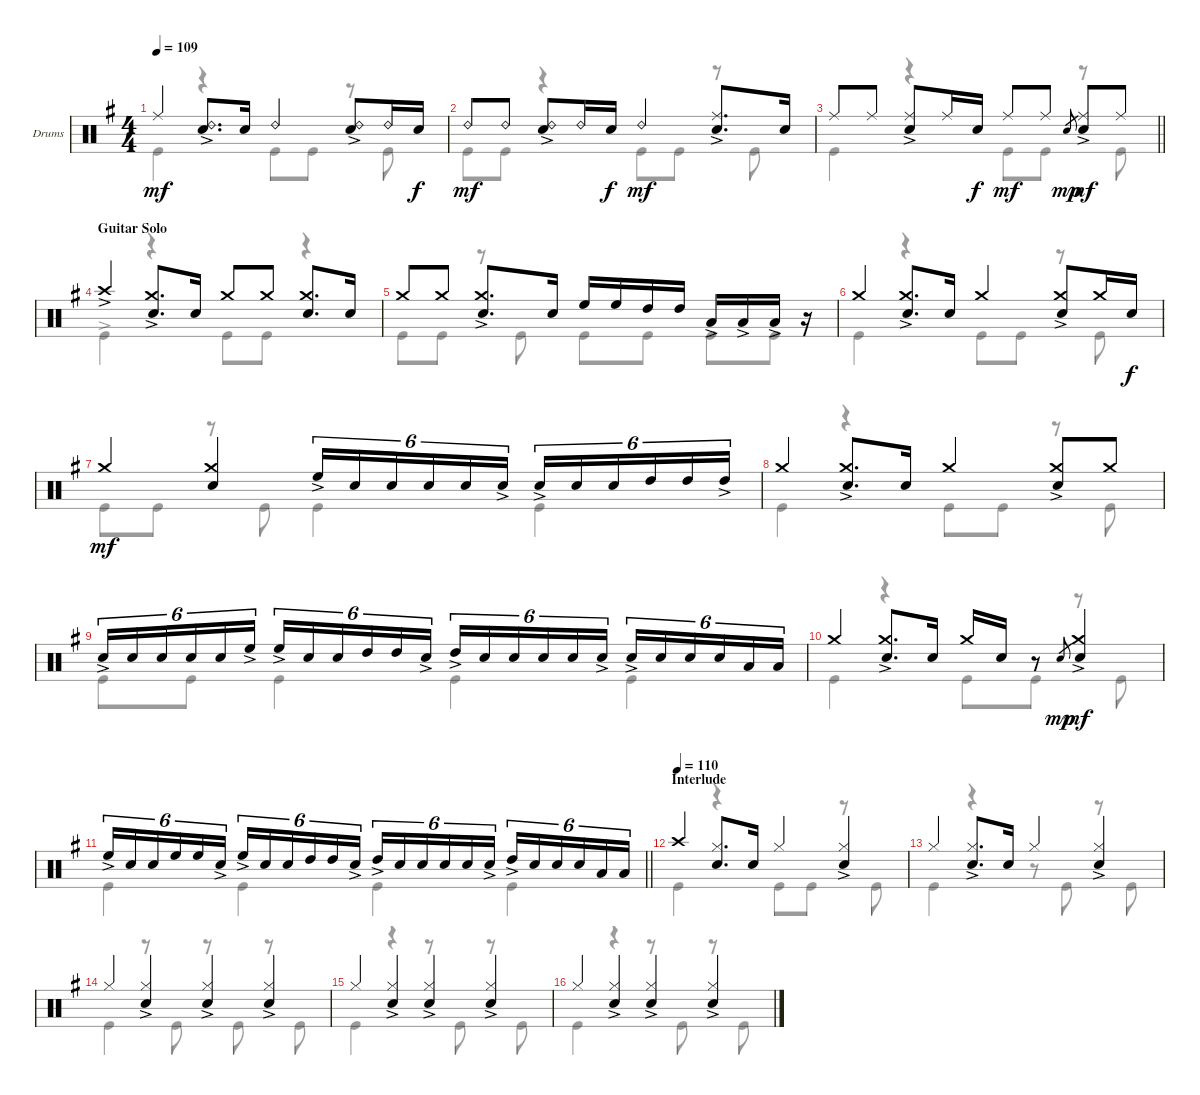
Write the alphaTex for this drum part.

\bracketExtendMode groupsimilarinstruments
\firstSystemTrackNameOrientation horizontal
\otherSystemsTrackNameOrientation horizontal
\track ("Drumkit" "Drums") {instrument percussion}
\staff {score}
\articulation defaults
\voice
\ts (4 4)
\tempo 109
\clef neutral
\ks g "Ride (middle)".4{dy mf}
("Ride (bell) 2" "Snare (hit) 2"{ac}).8{d} "Snare (hit) 2".16 "Ride (bell) 2".4 ("Ride (bell) 2" "Snare (hit) 2"{ac}).8 "Ride (bell) 2".16 "Snare (hit) 2".16{dy f} |
"Ride (bell) 2".8{dy mf} "Ride (bell) 2".8 ("Ride (bell) 2" "Snare (hit) 2"{ac}).8 "Ride (bell) 2".16 "Snare (hit) 2".16{dy f} "Ride (bell) 2".4{dy mf} ("Ride (middle)" "Snare (hit) 2"{ac}).8{d} "Snare (hit) 2".16 |
\barLineRight lightlight "Ride (middle)".8 "Ride (middle)".8
("Ride (middle)" "Snare (hit) 2"{ac}).8 "Ride (middle)".16 "Snare (hit) 2".16{dy f} "Ride (middle)".8{dy mf} "Ride (middle)".8 "Snare (hit) 2".8{gr dy mp} ("Ride (middle)" "Snare (hit) 2"{ac}).8{dy mf} "Ride (middle)".8 |
\section ("" "Guitar Solo")
"Crash high (hit)"{ac}.4 ("Crash medium (hit)" "Snare (hit) 2"{ac}).8{d} "Snare (hit) 2".16 "Crash medium (hit)".8 "Crash medium (hit)".8 ("Crash medium (hit)" "Snare (hit) 2").8{d} "Snare (hit) 2".16 |
"Crash medium (hit)".8 "Crash medium (hit)".8 ("Crash medium (hit)" "Snare (hit) 2"{ac}).8{d} "Snare (hit) 2".16 "High Floor Tom (hit)".16 "High Floor Tom (hit)".16 "High Tom (hit)".16 "High Tom (hit)".16 "Low Tom (hit)"{ac}.16 "Low Tom (hit)"{ac}.16 "Low Tom (hit)"{ac}.16 r.16 |
"Crash medium (hit)".4 ("Crash medium (hit)"{ac} "Snare (hit) 2").8{d} "Snare (hit) 2".16 "Crash medium (hit)".4 ("Crash medium (hit)"{ac} "Snare (hit) 2").8 "Crash medium (hit)".16 "Snare (hit) 2".16{dy f} |
"Crash medium (hit)".4{dy mf} ("Crash medium (hit)" "Snare (hit) 2").4 "High Floor Tom (hit)"{ac}.16{tu (6 4)} "Snare (hit) 2".16{tu (6 4)} "Snare (hit) 2".16{tu (6 4)} "Snare (hit) 2".16{tu (6 4)} "Snare (hit) 2".16{tu (6 4)} "Snare (hit) 2"{ac}.16{tu (6 4)} "Snare (hit) 2"{ac}.16{tu (6 4)} "Snare (hit) 2".16{tu (6 4)} "Snare (hit) 2".16{tu (6 4)} "High Tom (hit)".16{tu (6 4)} "High Tom (hit)".16{tu (6 4)} "High Tom (hit)"{ac}.16{tu (6 4)} |
"Crash medium (hit)".4 ("Crash medium (hit)"{ac} "Snare (hit) 2").8{d} "Snare (hit) 2".16 "Crash medium (hit)".4 ("Crash medium (hit)"{ac} "Snare (hit) 2").8 "Crash medium (hit)".8 |
"Snare (hit) 2"{ac}.16{tu (6 4)} "Snare (hit) 2".16{tu (6 4)} "Snare (hit) 2".16{tu (6 4)} "Snare (hit) 2".16{tu (6 4)} "Snare (hit) 2".16{tu (6 4)} "High Floor Tom (hit)"{ac}.16{tu (6 4)} "High Floor Tom (hit)"{ac}.16{tu (6 4)} "Snare (hit) 2".16{tu (6 4)} "Snare (hit) 2".16{tu (6 4)} "High Tom (hit)".16{tu (6 4)} "High Tom (hit)".16{tu (6 4)} "Snare (hit) 2"{ac}.16{tu (6 4)} "High Tom (hit)"{ac}.16{tu (6 4)} "Snare (hit) 2".16{tu (6 4)} "Snare (hit) 2".16{tu (6 4)} "Snare (hit) 2".16{tu (6 4)} "Snare (hit) 2".16{tu (6 4)} "Snare (hit) 2"{ac}.16{tu (6 4)} "Snare (hit) 2"{ac}.16{tu (6 4)} "Snare (hit) 2".16{tu (6 4)} "Snare (hit) 2".16{tu (6 4)} "Snare (hit) 2".16{tu (6 4)} "Low Tom (hit)".16{tu (6 4)} "Low Tom (hit)".16{tu (6 4)} |
"Crash medium (hit)".4 ("Crash medium (hit)"{ac} "Snare (hit) 2").8{d} "Snare (hit) 2".16 "Crash medium (hit)".16 "Snare (hit) 2".16 r.8 "Snare (hit) 2".8{gr dy mp} ("Crash medium (hit)" "Snare (hit) 2"{ac}).4{dy mf} |
\barLineRight lightlight "High Floor Tom (hit)"{ac}.16{tu (6 4)} "Snare (hit) 2".16{tu (6 4)} "Snare (hit) 2".16{tu (6 4)} "High Floor Tom (hit)".16{tu (6 4)} "High Floor Tom (hit)".16{tu (6 4)} "Snare (hit) 2"{ac}.16{tu (6 4)} "High Floor Tom (hit)"{ac}.16{tu (6 4)} "Snare (hit) 2".16{tu (6 4)} "Snare (hit) 2".16{tu (6 4)} "High Tom (hit)".16{tu (6 4)} "High Tom (hit)".16{tu (6 4)} "Snare (hit) 2"{ac}.16{tu (6 4)} "High Tom (hit)"{ac}.16{tu (6 4)} "Snare (hit) 2".16{tu (6 4)} "Snare (hit) 2".16{tu (6 4)} "Snare (hit) 2".16{tu (6 4)} "Snare (hit) 2".16{tu (6 4)} "Snare (hit) 2"{ac}.16{tu (6 4)} "High Tom (hit)"{ac}.16{tu (6 4)} "Snare (hit) 2".16{tu (6 4)} "Snare (hit) 2".16{tu (6 4)} "Snare (hit) 2".16{tu (6 4)} "Low Tom (hit)".16{tu (6 4)} "Low Tom (hit)".16{tu (6 4)}
|
\section ("" "Interlude")
\tempo (110)
"Crash high (hit)".4 ("Hi-Hat (closed)" "Snare (hit) 2").8{d} "Snare (hit) 2".16 "Hi-Hat (closed)".4 ("Hi-Hat (closed)"{ac} "Snare (hit) 2").4 |
"Hi-Hat (closed)".4 ("Hi-Hat (closed)"{ac} "Snare (hit) 2").8{d} "Snare (hit) 2".16 "Hi-Hat (closed)".4 ("Hi-Hat (closed)"{ac} "Snare (hit) 2").4 |
"Hi-Hat (closed)".4 ("Hi-Hat (closed)"{ac} "Snare (hit) 2").4 ("Hi-Hat (closed)"{ac} "Snare (hit) 2").4 ("Hi-Hat (closed)"{ac} "Snare (hit) 2").4 |
"Hi-Hat (closed)".4 ("Hi-Hat (closed)"{ac} "Snare (hit) 2").4 ("Hi-Hat (closed)"{ac} "Snare (hit) 2").4 ("Hi-Hat (closed)"{ac} "Snare (hit) 2").4 |
"Hi-Hat (closed)".4 ("Hi-Hat (closed)"{ac} "Snare (hit) 2").4 ("Hi-Hat (closed)"{ac} "Snare (hit) 2").4 ("Hi-Hat (closed)"{ac} "Snare (hit) 2").4
\voice
\clef neutral
\ottava regular
\simile none
\ks g "Kick (hit)".4{dy mf}
r.4 "Kick (hit)".8 "Kick (hit)".8 r.8 "Kick (hit)".8 |
"Kick (hit)".8 "Kick (hit)".8 r.4 "Kick (hit)".8 "Kick (hit)".8 r.8 "Kick (hit)".8 |
\barLineRight lightlight "Kick (hit)".4
r.4 "Kick (hit)".8 "Kick (hit)".8 r.8 "Kick (hit)".8 |
"Kick (hit)"{ac}.4 r.4 "Kick (hit)".8 "Kick (hit)".8 r.4 |
"Kick (hit)".8 "Kick (hit)".8 r.8 "Kick (hit)".8 "Kick (hit)".8 "Kick (hit)".8 "Kick (hit)".8 "Kick (hit)".8 |
"Kick (hit)".4 r.4 "Kick (hit)".8 "Kick (hit)".8 r.8 "Kick (hit)".8 |
"Kick (hit)".8 "Kick (hit)".8 r.8 "Kick (hit)".8 "Kick (hit)".4 "Kick (hit)".4 |
"Kick (hit)".4 r.4 "Kick (hit)".8 "Kick (hit)".8 r.8 "Kick (hit)".8 |
"Kick (hit)".8 "Kick (hit)".8 "Kick (hit)".4 "Kick (hit)".4 "Kick (hit)".4 |
"Kick (hit)".4 r.4 "Kick (hit)".8 "Kick (hit)".8 r.8 "Kick (hit)".8 |
\barLineRight lightlight "Kick (hit)".4 "Kick (hit)".4 "Kick (hit)".4 "Kick (hit)".4
|
"Kick (hit)".4 r.4 "Kick (hit)".8 "Kick (hit)".8 r.8 "Kick (hit)".8 |
"Kick (hit)".4 r.4 r.8 "Kick (hit)".8 r.8 "Kick (hit)".8 |
"Kick (hit)".4 r.8 "Kick (hit)".8 r.8 "Kick (hit)".8 r.8 "Kick (hit)".8 |
"Kick (hit)".4 r.4 r.8 "Kick (hit)".8 r.8 "Kick (hit)".8 |
"Kick (hit)".4 r.4 r.8 "Kick (hit)".8 r.8 "Kick (hit)".8
